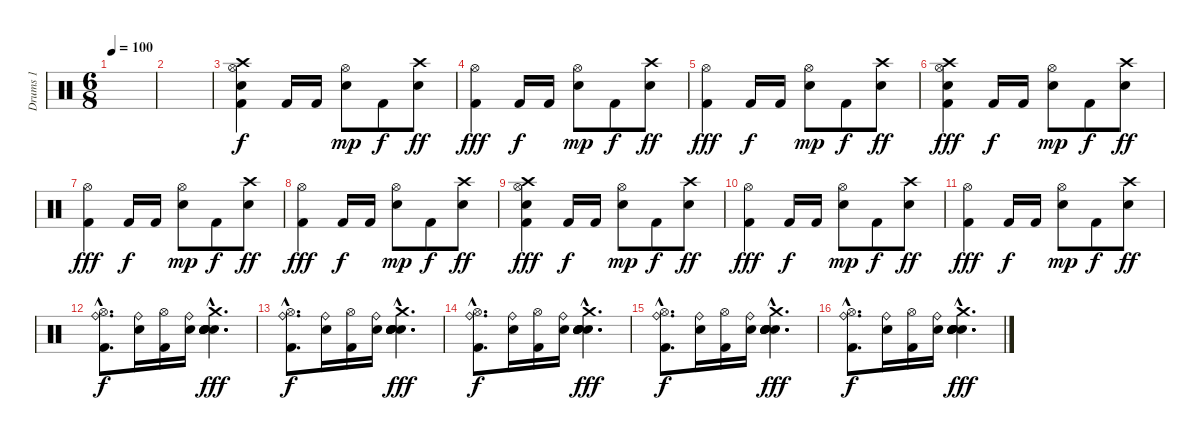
\track ("Drums 1" "Drums 1") {instrument percussion}
\staff {score}
\articulation defaults
\ts (6 8)
\tempo 100
\clef neutral
\ks c
|
|
("Kick (hit) 2" "Snare (hit) 2" "Crash high (hit)" "Hi-Hat (open)").4 "Kick (hit) 2".16{dy f} "Kick (hit) 2".16 ("Snare (hit) 2" "Hi-Hat (open)").8{dy mp} "Kick (hit) 2".8{dy f} ("Snare (hit) 2" "Crash high (hit)").8{dy ff} |
("Kick (hit) 2" "Hi-Hat (open)").4{dy fff} "Kick (hit) 2".16{dy f} "Kick (hit) 2".16 ("Snare (hit) 2" "Hi-Hat (open)").8{dy mp} "Kick (hit) 2".8{dy f} ("Snare (hit) 2" "Crash high (hit)").8{dy ff} |
("Kick (hit) 2" "Hi-Hat (open)").4{dy fff} "Kick (hit) 2".16{dy f} "Kick (hit) 2".16 ("Snare (hit) 2" "Hi-Hat (open)").8{dy mp} "Kick (hit) 2".8{dy f} ("Snare (hit) 2" "Crash high (hit)").8{dy ff} |
("Kick (hit) 2" "Snare (hit) 2" "Crash high (hit)" "Hi-Hat (open)").4{dy fff} "Kick (hit) 2".16{dy f} "Kick (hit) 2".16 ("Snare (hit) 2" "Hi-Hat (open)").8{dy mp} "Kick (hit) 2".8{dy f} ("Snare (hit) 2" "Crash high (hit)").8{dy ff} |
("Kick (hit) 2" "Hi-Hat (open)").4{dy fff} "Kick (hit) 2".16{dy f} "Kick (hit) 2".16 ("Snare (hit) 2" "Hi-Hat (open)").8{dy mp} "Kick (hit) 2".8{dy f} ("Snare (hit) 2" "Crash high (hit)").8{dy ff} |
("Kick (hit) 2" "Hi-Hat (open)").4{dy fff} "Kick (hit) 2".16{dy f} "Kick (hit) 2".16 ("Snare (hit) 2" "Hi-Hat (open)").8{dy mp} "Kick (hit) 2".8{dy f} ("Snare (hit) 2" "Crash high (hit)").8{dy ff} |
("Kick (hit) 2" "Snare (hit) 2" "Crash high (hit)" "Hi-Hat (open)").4{dy fff} "Kick (hit) 2".16{dy f} "Kick (hit) 2".16 ("Snare (hit) 2" "Hi-Hat (open)").8{dy mp} "Kick (hit) 2".8{dy f} ("Snare (hit) 2" "Crash high (hit)").8{dy ff} |
("Kick (hit) 2" "Hi-Hat (open)").4{dy fff} "Kick (hit) 2".16{dy f} "Kick (hit) 2".16 ("Snare (hit) 2" "Hi-Hat (open)").8{dy mp} "Kick (hit) 2".8{dy f} ("Snare (hit) 2" "Crash high (hit)").8{dy ff} |
("Kick (hit) 2" "Hi-Hat (open)").4{dy fff} "Kick (hit) 2".16{dy f} "Kick (hit) 2".16 ("Snare (hit) 2" "Hi-Hat (open)").8{dy mp} "Kick (hit) 2".8{dy f} ("Snare (hit) 2" "Crash high (hit)").8{dy ff} |
("Kick (hit) 2"{hac} "Ride (bell)"{hac} "Hi-Hat (open)"{hac}).8{d dy f} ("Snare (hit) 2" "Ride (bell)").16 ("Kick (hit) 2" "Hi-Hat (open)").16 ("Snare (hit) 2" "Ride (bell)").16 ("Snare (hit) 2"{hac} "Snare (hit) 2"{hac} "Snare (hit) 2"{hac} "Snare (hit) 2"{hac} "Snare (hit) 2"{hac} "Crash medium (hit)"{hac}).4{d bu 480 dy fff} |
("Kick (hit) 2"{hac} "Ride (bell)"{hac} "Hi-Hat (open)"{hac}).8{d dy f} ("Snare (hit) 2" "Ride (bell)").16 ("Kick (hit) 2" "Hi-Hat (open)").16 ("Snare (hit) 2" "Ride (bell)").16 ("Snare (hit) 2"{hac} "Snare (hit) 2"{hac} "Snare (hit) 2"{hac} "Snare (hit) 2"{hac} "Snare (hit) 2"{hac} "Crash medium (hit)"{hac}).4{d bu 480 dy fff} |
("Kick (hit) 2"{hac} "Ride (bell)"{hac} "Hi-Hat (open)"{hac}).8{d dy f} ("Snare (hit) 2" "Ride (bell)").16 ("Kick (hit) 2" "Hi-Hat (open)").16 ("Snare (hit) 2" "Ride (bell)").16 ("Snare (hit) 2"{hac} "Snare (hit) 2"{hac} "Snare (hit) 2"{hac} "Snare (hit) 2"{hac} "Snare (hit) 2"{hac} "Crash medium (hit)"{hac}).4{d bu 480 dy fff} |
("Kick (hit) 2"{hac} "Ride (bell)"{hac} "Hi-Hat (open)"{hac}).8{d dy f} ("Snare (hit) 2" "Ride (bell)").16 ("Kick (hit) 2" "Hi-Hat (open)").16 ("Snare (hit) 2" "Ride (bell)").16 ("Snare (hit) 2"{hac} "Snare (hit) 2"{hac} "Snare (hit) 2"{hac} "Snare (hit) 2"{hac} "Snare (hit) 2"{hac} "Crash medium (hit)"{hac}).4{d bu 480 dy fff} |
("Kick (hit) 2"{hac} "Ride (bell)"{hac} "Hi-Hat (open)"{hac}).8{d dy f} ("Snare (hit) 2" "Ride (bell)").16 ("Kick (hit) 2" "Hi-Hat (open)").16 ("Snare (hit) 2" "Ride (bell)").16 ("Snare (hit) 2"{hac} "Snare (hit) 2"{hac} "Snare (hit) 2"{hac} "Snare (hit) 2"{hac} "Snare (hit) 2"{hac} "Crash medium (hit)"{hac}).4{d bu 480 dy fff}
